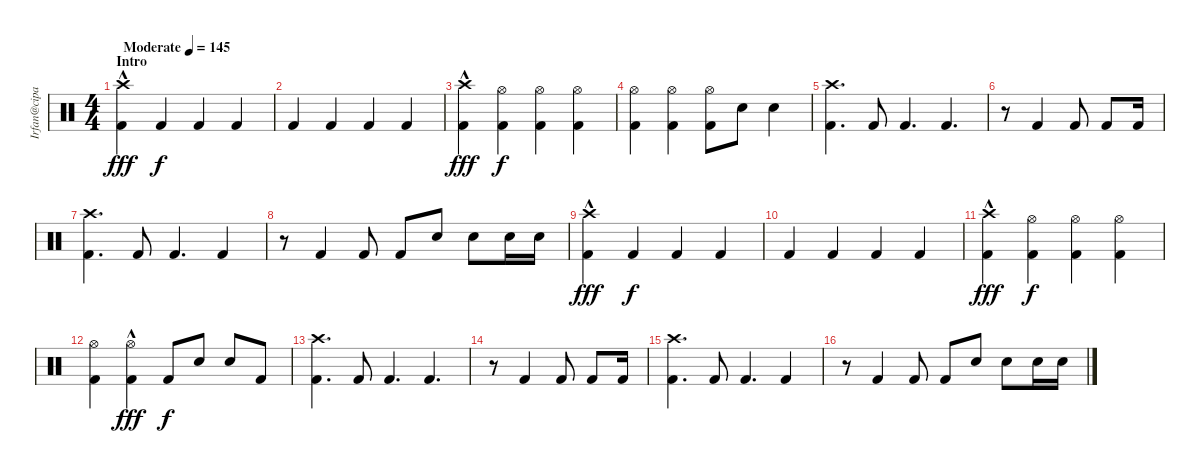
\track ("Irfan@cipan" "Irfan@cipa") {instrument percussion}
\staff {score}
\articulation defaults
\ts (4 4)
\section ("" "Intro")
\tempo (145 "Moderate")
\clef neutral
\ks c
("Crash high (hit)"{hac} "Kick (hit) 2").4{dy fff} "Kick (hit) 2".4{dy f} "Kick (hit) 2".4 "Kick (hit) 2".4 |
"Kick (hit) 2".4 "Kick (hit) 2".4 "Kick (hit) 2".4 "Kick (hit) 2".4 |
("Crash high (hit)"{hac} "Kick (hit) 2").4{dy fff} ("Hi-Hat (open)" "Kick (hit) 2").4{dy f} ("Hi-Hat (open)" "Kick (hit) 2").4 ("Hi-Hat (open)" "Kick (hit) 2").4 |
("Hi-Hat (open)" "Kick (hit) 2").4 ("Hi-Hat (open)" "Kick (hit) 2").4 ("Hi-Hat (open)" "Kick (hit) 2").8 "Electric Snare (hit)".8 "Electric Snare (hit)".4 |
("Crash high (hit)" "Kick (hit) 2").4{d} "Kick (hit) 2".8 "Kick (hit) 2".4{d} "Kick (hit) 2".4{d} |
r.8 "Kick (hit) 2".4 "Kick (hit) 2".8 "Kick (hit) 2".8 "Kick (hit) 2".16 |
("Crash high (hit)" "Kick (hit) 2").4{d} "Kick (hit) 2".8 "Kick (hit) 2".4{d} "Kick (hit) 2".4 |
r.8 "Kick (hit) 2".4 "Kick (hit) 2".8 "Kick (hit) 2".8 "Electric Snare (hit)".8 "Electric Snare (hit)".8 "Electric Snare (hit)".16 "Electric Snare (hit)".16 |
("Crash high (hit)"{hac} "Kick (hit) 2").4{dy fff} "Kick (hit) 2".4{dy f} "Kick (hit) 2".4 "Kick (hit) 2".4 |
"Kick (hit) 2".4 "Kick (hit) 2".4 "Kick (hit) 2".4 "Kick (hit) 2".4 |
("Crash high (hit)"{hac} "Kick (hit) 2").4{dy fff} ("Hi-Hat (open)" "Kick (hit) 2").4{dy f} ("Hi-Hat (open)" "Kick (hit) 2").4 ("Hi-Hat (open)" "Kick (hit) 2").4 |
("Hi-Hat (open)" "Kick (hit) 2").4 ("Hi-Hat (open)"{hac} "Kick (hit) 2").4{dy fff} "Kick (hit) 2".8{dy f} "Electric Snare (hit)".8 "Electric Snare (hit)".8 "Kick (hit) 2".8 |
("Crash high (hit)" "Kick (hit) 2").4{d} "Kick (hit) 2".8 "Kick (hit) 2".4{d} "Kick (hit) 2".4{d} |
r.8 "Kick (hit) 2".4 "Kick (hit) 2".8 "Kick (hit) 2".8 "Kick (hit) 2".16 |
("Crash high (hit)" "Kick (hit) 2").4{d} "Kick (hit) 2".8 "Kick (hit) 2".4{d} "Kick (hit) 2".4 |
r.8 "Kick (hit) 2".4 "Kick (hit) 2".8 "Kick (hit) 2".8 "Electric Snare (hit)".8 "Electric Snare (hit)".8 "Electric Snare (hit)".16 "Electric Snare (hit)".16
